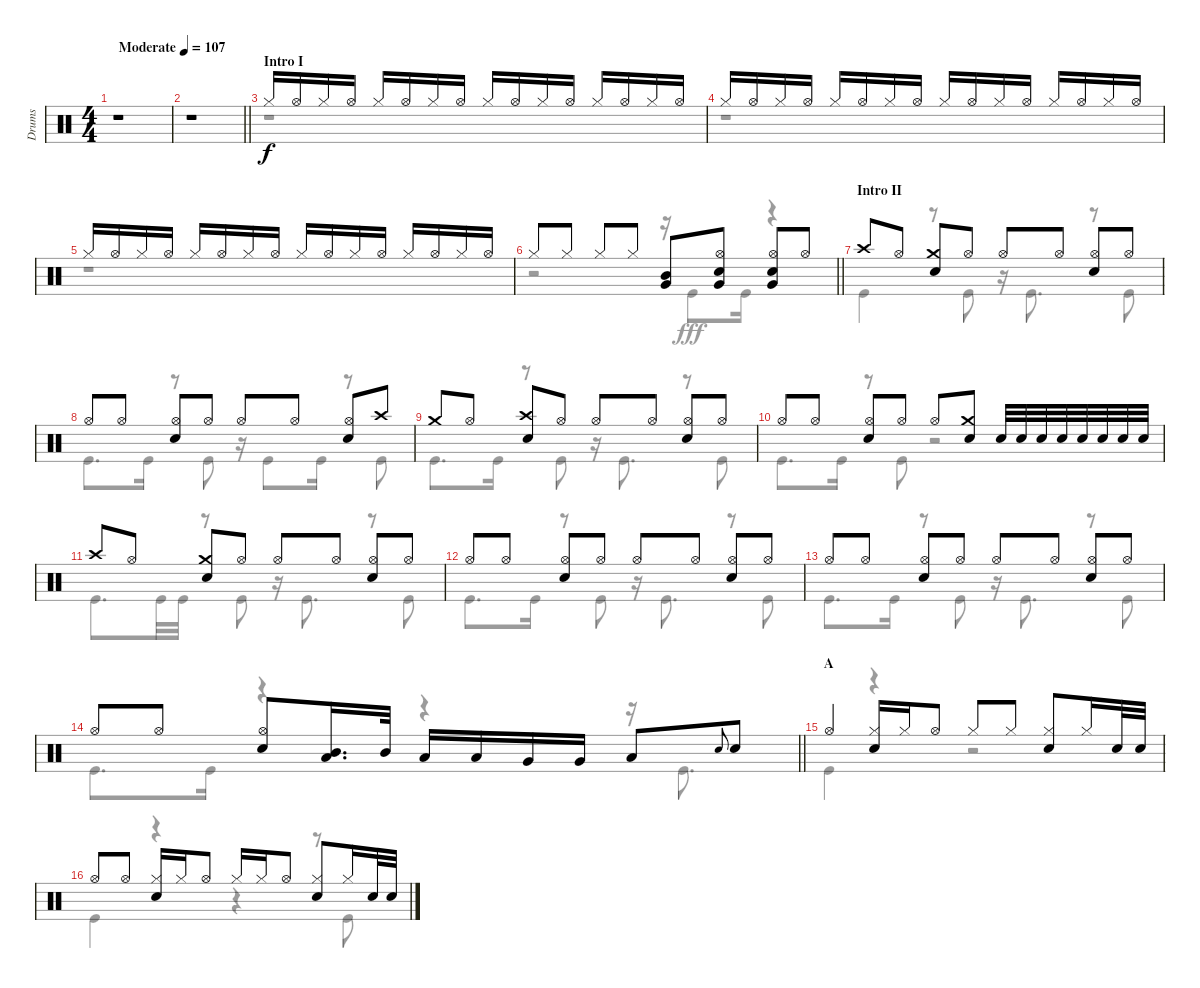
\track ("Drums" "Drums") {instrument percussion}
\staff {score}
\articulation defaults
\voice
\ts (4 4)
\tempo (107 "Moderate")
\clef neutral
\ks c
r.1{dy f} |
\barLineRight lightlight
r.1 |
\section ("" "Intro I")
"Hi-Hat (closed)".16 "Hi-Hat (open)".16 "Hi-Hat (closed)".16 "Hi-Hat (open)".16 "Hi-Hat (closed)".16 "Hi-Hat (open)".16 "Hi-Hat (closed)".16 "Hi-Hat (open)".16 "Hi-Hat (closed)".16 "Hi-Hat (open)".16 "Hi-Hat (closed)".16 "Hi-Hat (open)".16 "Hi-Hat (closed)".16 "Hi-Hat (open)".16 "Hi-Hat (closed)".16 "Hi-Hat (open)".16 |
"Hi-Hat (closed)".16 "Hi-Hat (open)".16 "Hi-Hat (closed)".16 "Hi-Hat (open)".16 "Hi-Hat (closed)".16 "Hi-Hat (open)".16 "Hi-Hat (closed)".16 "Hi-Hat (open)".16 "Hi-Hat (closed)".16 "Hi-Hat (open)".16 "Hi-Hat (closed)".16 "Hi-Hat (open)".16 "Hi-Hat (closed)".16 "Hi-Hat (open)".16 "Hi-Hat (closed)".16 "Hi-Hat (open)".16 |
"Hi-Hat (closed)".16 "Hi-Hat (open)".16 "Hi-Hat (closed)".16 "Hi-Hat (open)".16 "Hi-Hat (closed)".16 "Hi-Hat (open)".16 "Hi-Hat (closed)".16 "Hi-Hat (open)".16 "Hi-Hat (closed)".16 "Hi-Hat (open)".16 "Hi-Hat (closed)".16 "Hi-Hat (open)".16 "Hi-Hat (closed)".16 "Hi-Hat (open)".16 "Hi-Hat (closed)".16 "Hi-Hat (open)".16 |
\barLineRight lightlight "Hi-Hat (closed)".8 "Hi-Hat (closed)".8 "Hi-Hat (closed)".8 "Hi-Hat (closed)".8
("Mid Tom (hit)" "Very Low Tom (hit)").8 ("Hi-Hat (open)" "Snare (hit) 2" "Very Low Tom (hit)").8 ("Hi-Hat (open)" "Snare (hit) 2" "Very Low Tom (hit)").8 "Hi-Hat (open)".8 |
\section ("" "Intro II")
"Crash high (hit)".8 "Hi-Hat (open)".8 ("Crash medium (hit)" "Snare (hit) 2").8 "Hi-Hat (open)".8 "Hi-Hat (open)".8 "Hi-Hat (open)".8 ("Hi-Hat (open)" "Snare (hit) 2").8 "Hi-Hat (open)".8 |
"Hi-Hat (open)".8 "Hi-Hat (open)".8 ("Hi-Hat (open)" "Snare (hit) 2").8 "Hi-Hat (open)".8 "Hi-Hat (open)".8 "Hi-Hat (open)".8 ("Hi-Hat (open)" "Snare (hit) 2").8 "Crash high (hit)".8 |
"Crash medium (hit)".8 "Hi-Hat (open)".8 ("Crash high (hit)" "Snare (hit) 2").8 "Hi-Hat (open)".8 "Hi-Hat (open)".8 "Hi-Hat (open)".8 ("Hi-Hat (open)" "Snare (hit) 2").8 "Hi-Hat (open)".8 |
"Hi-Hat (open)".8 "Hi-Hat (open)".8 ("Hi-Hat (open)" "Snare (hit) 2").8 "Hi-Hat (open)".8 "Hi-Hat (open)".8 ("Crash medium (hit)" "Snare (hit) 2").8 "Snare (hit) 2".32 "Snare (hit) 2".32 "Snare (hit) 2".32 "Snare (hit) 2".32 "Snare (hit) 2".32 "Snare (hit) 2".32 "Snare (hit) 2".32 "Snare (hit) 2".32 |
"Crash high (hit)".8 "Hi-Hat (open)".8 ("Crash medium (hit)" "Snare (hit) 2").8 "Hi-Hat (open)".8 "Hi-Hat (open)".8 "Hi-Hat (open)".8 ("Hi-Hat (open)" "Snare (hit) 2").8 "Hi-Hat (open)".8 |
"Hi-Hat (open)".8 "Hi-Hat (open)".8 ("Hi-Hat (open)" "Snare (hit) 2").8 "Hi-Hat (open)".8 "Hi-Hat (open)".8 "Hi-Hat (open)".8 ("Hi-Hat (open)" "Snare (hit) 2").8 "Hi-Hat (open)".8 |
"Hi-Hat (open)".8 "Hi-Hat (open)".8 ("Hi-Hat (open)" "Snare (hit) 2").8 "Hi-Hat (open)".8 "Hi-Hat (open)".8 "Hi-Hat (open)".8 ("Hi-Hat (open)" "Snare (hit) 2").8 "Hi-Hat (open)".8 |
\barLineRight lightlight "Hi-Hat (open)".8 "Hi-Hat (open)".8
("Hi-Hat (open)" "Snare (hit) 2").8 ("Mid Tom (hit)" "Low Tom (hit)").16{d} "Mid Tom (hit)".32 "Low Tom (hit)".16 "Low Tom (hit)".16 "Very Low Tom (hit)".16 "Very Low Tom (hit)".16 "Low Floor Tom (hit)".8 "Snare (hit) 2".8{gr onbeat} "Snare (hit) 2".8 |
\section ("" "A")
"Hi-Hat (open)".4 ("Hi-Hat (closed)" "Snare (hit) 2").16 "Hi-Hat (closed)".16 "Hi-Hat (open)".8 "Hi-Hat (closed)".8 "Hi-Hat (closed)".8 ("Hi-Hat (closed)" "Snare (hit) 2").8 "Hi-Hat (closed)".16 "Snare (hit) 2".32 "Snare (hit) 2".32 |
"Hi-Hat (open)".8 "Hi-Hat (open)".8 ("Hi-Hat (closed)" "Snare (hit) 2").16 "Hi-Hat (closed)".16 "Hi-Hat (open)".8 "Hi-Hat (closed)".16 "Hi-Hat (closed)".16 "Hi-Hat (open)".8 ("Hi-Hat (closed)" "Snare (hit) 2").8 "Hi-Hat (closed)".16 "Snare (hit) 2".32 "Snare (hit) 2".32
\voice
\clef neutral
\ottava regular
\simile none
\ks c
r.1{dy fff} |
\barLineRight lightlight
r.1 |
r.1 |
r.1 |
r.1 |
\barLineRight lightlight
r.2 r.16 "Kick (hit)".8 "Kick (hit)".16 r.4 |
"Kick (hit)".4 r.8 "Kick (hit)".8 r.16 "Kick (hit)".8{d} r.8 "Kick (hit)".8 |
"Kick (hit)".8{d} "Kick (hit)".16 r.8 "Kick (hit)".8 r.16 "Kick (hit)".8 "Kick (hit)".16 r.8 "Kick (hit)".8 |
"Kick (hit)".8{d} "Kick (hit)".16 r.8 "Kick (hit)".8 r.16 "Kick (hit)".8{d} r.8 "Kick (hit)".8 |
"Kick (hit)".8{d} "Kick (hit)".16 r.8 "Kick (hit)".8 r.2 |
"Kick (hit)".8{d} "Kick (hit)".32 "Kick (hit)".32 r.8 "Kick (hit)".8 r.16 "Kick (hit)".8{d} r.8 "Kick (hit)".8 |
"Kick (hit)".8{d} "Kick (hit)".16 r.8 "Kick (hit)".8 r.16 "Kick (hit)".8{d} r.8 "Kick (hit)".8 |
"Kick (hit)".8{d} "Kick (hit)".16 r.8 "Kick (hit)".8 r.16 "Kick (hit)".8{d} r.8 "Kick (hit)".8 |
\barLineRight lightlight "Kick (hit)".8{d} "Kick (hit)".16
r.4 r.4 r.16 "Kick (hit)".8{d} |
"Kick (hit)".4 r.4 r.2 |
"Kick (hit)".4 r.4 r.4 r.8 "Kick (hit)".8
